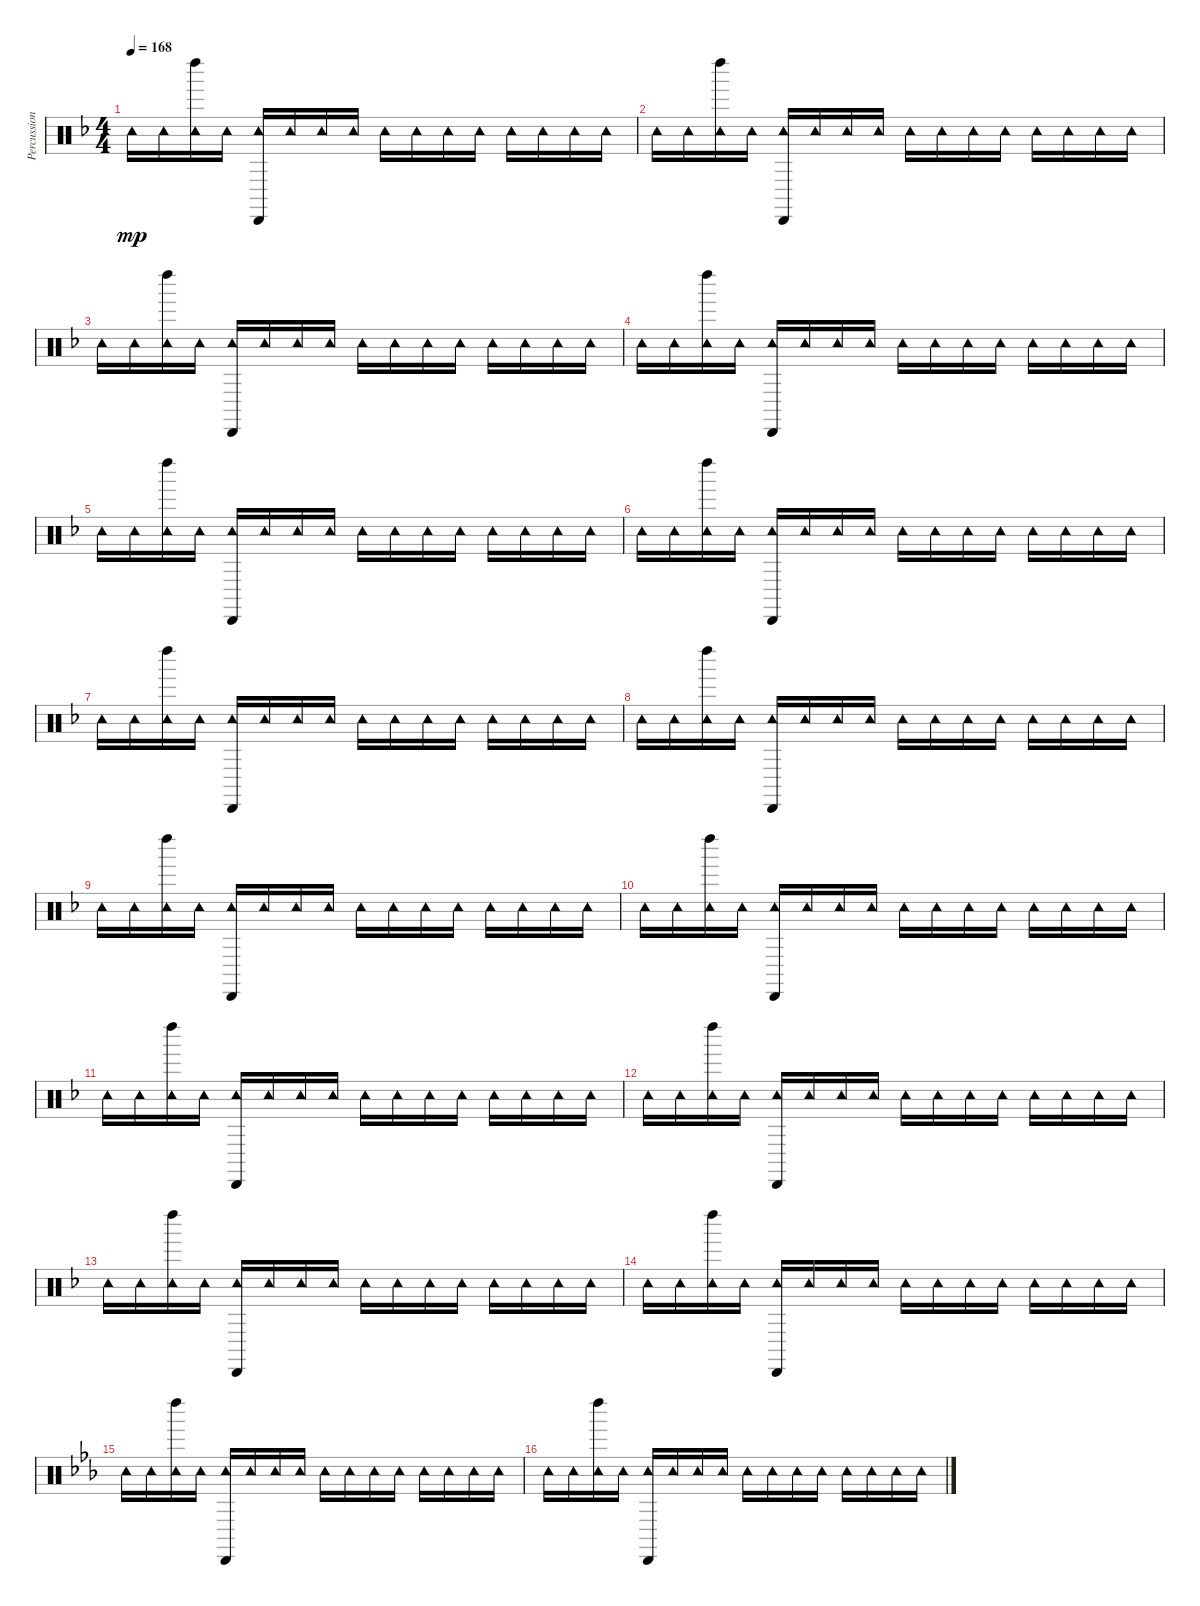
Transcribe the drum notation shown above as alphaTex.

\track ("Percussions" "Percussion") {instrument percussion}
\staff {score}
\articulation defaults
\ts (4 4)
\tempo 168
\clef neutral
\ks f "Tambourine (hit)".16{dy mp} "Tambourine (hit)".16
("Left Maraca (hit)" "Tambourine (hit)").16 "Tambourine (hit)".16 ("Cabasa (hit)" "Tambourine (hit)").16 "Tambourine (hit)".16 "Tambourine (hit)".16 "Tambourine (hit)".16 "Tambourine (hit)".16 "Tambourine (hit)".16 "Tambourine (hit)".16 "Tambourine (hit)".16 "Tambourine (hit)".16 "Tambourine (hit)".16 "Tambourine (hit)".16 "Tambourine (hit)".16 |
"Tambourine (hit)".16 "Tambourine (hit)".16 ("Left Maraca (hit)" "Tambourine (hit)").16 "Tambourine (hit)".16 ("Cabasa (hit)" "Tambourine (hit)").16 "Tambourine (hit)".16 "Tambourine (hit)".16 "Tambourine (hit)".16 "Tambourine (hit)".16 "Tambourine (hit)".16 "Tambourine (hit)".16 "Tambourine (hit)".16 "Tambourine (hit)".16 "Tambourine (hit)".16 "Tambourine (hit)".16 "Tambourine (hit)".16 |
"Tambourine (hit)".16 "Tambourine (hit)".16 ("Left Maraca (hit)" "Tambourine (hit)").16 "Tambourine (hit)".16 ("Cabasa (hit)" "Tambourine (hit)").16 "Tambourine (hit)".16 "Tambourine (hit)".16 "Tambourine (hit)".16 "Tambourine (hit)".16 "Tambourine (hit)".16 "Tambourine (hit)".16 "Tambourine (hit)".16 "Tambourine (hit)".16 "Tambourine (hit)".16 "Tambourine (hit)".16 "Tambourine (hit)".16 |
"Tambourine (hit)".16 "Tambourine (hit)".16 ("Left Maraca (hit)" "Tambourine (hit)").16 "Tambourine (hit)".16 ("Cabasa (hit)" "Tambourine (hit)").16 "Tambourine (hit)".16 "Tambourine (hit)".16 "Tambourine (hit)".16 "Tambourine (hit)".16 "Tambourine (hit)".16 "Tambourine (hit)".16 "Tambourine (hit)".16 "Tambourine (hit)".16 "Tambourine (hit)".16 "Tambourine (hit)".16 "Tambourine (hit)".16 |
"Tambourine (hit)".16 "Tambourine (hit)".16 ("Left Maraca (hit)" "Tambourine (hit)").16 "Tambourine (hit)".16 ("Cabasa (hit)" "Tambourine (hit)").16 "Tambourine (hit)".16 "Tambourine (hit)".16 "Tambourine (hit)".16 "Tambourine (hit)".16 "Tambourine (hit)".16 "Tambourine (hit)".16 "Tambourine (hit)".16 "Tambourine (hit)".16 "Tambourine (hit)".16 "Tambourine (hit)".16 "Tambourine (hit)".16 |
"Tambourine (hit)".16 "Tambourine (hit)".16 ("Left Maraca (hit)" "Tambourine (hit)").16 "Tambourine (hit)".16 ("Cabasa (hit)" "Tambourine (hit)").16 "Tambourine (hit)".16 "Tambourine (hit)".16 "Tambourine (hit)".16 "Tambourine (hit)".16 "Tambourine (hit)".16 "Tambourine (hit)".16 "Tambourine (hit)".16 "Tambourine (hit)".16 "Tambourine (hit)".16 "Tambourine (hit)".16 "Tambourine (hit)".16 |
"Tambourine (hit)".16 "Tambourine (hit)".16 ("Left Maraca (hit)" "Tambourine (hit)").16 "Tambourine (hit)".16 ("Cabasa (hit)" "Tambourine (hit)").16 "Tambourine (hit)".16 "Tambourine (hit)".16 "Tambourine (hit)".16 "Tambourine (hit)".16 "Tambourine (hit)".16 "Tambourine (hit)".16 "Tambourine (hit)".16 "Tambourine (hit)".16 "Tambourine (hit)".16 "Tambourine (hit)".16 "Tambourine (hit)".16 |
"Tambourine (hit)".16 "Tambourine (hit)".16 ("Left Maraca (hit)" "Tambourine (hit)").16 "Tambourine (hit)".16 ("Cabasa (hit)" "Tambourine (hit)").16 "Tambourine (hit)".16 "Tambourine (hit)".16 "Tambourine (hit)".16 "Tambourine (hit)".16 "Tambourine (hit)".16 "Tambourine (hit)".16 "Tambourine (hit)".16 "Tambourine (hit)".16 "Tambourine (hit)".16 "Tambourine (hit)".16 "Tambourine (hit)".16 |
"Tambourine (hit)".16 "Tambourine (hit)".16 ("Left Maraca (hit)" "Tambourine (hit)").16 "Tambourine (hit)".16 ("Cabasa (hit)" "Tambourine (hit)").16 "Tambourine (hit)".16 "Tambourine (hit)".16 "Tambourine (hit)".16 "Tambourine (hit)".16 "Tambourine (hit)".16 "Tambourine (hit)".16 "Tambourine (hit)".16 "Tambourine (hit)".16 "Tambourine (hit)".16 "Tambourine (hit)".16 "Tambourine (hit)".16 |
"Tambourine (hit)".16 "Tambourine (hit)".16 ("Left Maraca (hit)" "Tambourine (hit)").16 "Tambourine (hit)".16 ("Cabasa (hit)" "Tambourine (hit)").16 "Tambourine (hit)".16 "Tambourine (hit)".16 "Tambourine (hit)".16 "Tambourine (hit)".16 "Tambourine (hit)".16 "Tambourine (hit)".16 "Tambourine (hit)".16 "Tambourine (hit)".16 "Tambourine (hit)".16 "Tambourine (hit)".16 "Tambourine (hit)".16 |
"Tambourine (hit)".16 "Tambourine (hit)".16 ("Left Maraca (hit)" "Tambourine (hit)").16 "Tambourine (hit)".16 ("Cabasa (hit)" "Tambourine (hit)").16 "Tambourine (hit)".16 "Tambourine (hit)".16 "Tambourine (hit)".16 "Tambourine (hit)".16 "Tambourine (hit)".16 "Tambourine (hit)".16 "Tambourine (hit)".16 "Tambourine (hit)".16 "Tambourine (hit)".16 "Tambourine (hit)".16 "Tambourine (hit)".16 |
"Tambourine (hit)".16 "Tambourine (hit)".16 ("Left Maraca (hit)" "Tambourine (hit)").16 "Tambourine (hit)".16 ("Cabasa (hit)" "Tambourine (hit)").16 "Tambourine (hit)".16 "Tambourine (hit)".16 "Tambourine (hit)".16 "Tambourine (hit)".16 "Tambourine (hit)".16 "Tambourine (hit)".16 "Tambourine (hit)".16 "Tambourine (hit)".16 "Tambourine (hit)".16 "Tambourine (hit)".16 "Tambourine (hit)".16 |
"Tambourine (hit)".16 "Tambourine (hit)".16 ("Left Maraca (hit)" "Tambourine (hit)").16 "Tambourine (hit)".16 ("Cabasa (hit)" "Tambourine (hit)").16 "Tambourine (hit)".16 "Tambourine (hit)".16 "Tambourine (hit)".16 "Tambourine (hit)".16 "Tambourine (hit)".16 "Tambourine (hit)".16 "Tambourine (hit)".16 "Tambourine (hit)".16 "Tambourine (hit)".16 "Tambourine (hit)".16 "Tambourine (hit)".16 |
"Tambourine (hit)".16 "Tambourine (hit)".16 ("Left Maraca (hit)" "Tambourine (hit)").16 "Tambourine (hit)".16 ("Cabasa (hit)" "Tambourine (hit)").16 "Tambourine (hit)".16 "Tambourine (hit)".16 "Tambourine (hit)".16 "Tambourine (hit)".16 "Tambourine (hit)".16 "Tambourine (hit)".16 "Tambourine (hit)".16 "Tambourine (hit)".16 "Tambourine (hit)".16 "Tambourine (hit)".16 "Tambourine (hit)".16 |
\ks eb "Tambourine (hit)".16 "Tambourine (hit)".16
("Left Maraca (hit)" "Tambourine (hit)").16 "Tambourine (hit)".16 ("Cabasa (hit)" "Tambourine (hit)").16 "Tambourine (hit)".16 "Tambourine (hit)".16 "Tambourine (hit)".16 "Tambourine (hit)".16 "Tambourine (hit)".16 "Tambourine (hit)".16 "Tambourine (hit)".16 "Tambourine (hit)".16 "Tambourine (hit)".16 "Tambourine (hit)".16 "Tambourine (hit)".16 |
"Tambourine (hit)".16 "Tambourine (hit)".16 ("Left Maraca (hit)" "Tambourine (hit)").16 "Tambourine (hit)".16 ("Cabasa (hit)" "Tambourine (hit)").16 "Tambourine (hit)".16 "Tambourine (hit)".16 "Tambourine (hit)".16 "Tambourine (hit)".16 "Tambourine (hit)".16 "Tambourine (hit)".16 "Tambourine (hit)".16 "Tambourine (hit)".16 "Tambourine (hit)".16 "Tambourine (hit)".16 "Tambourine (hit)".16
